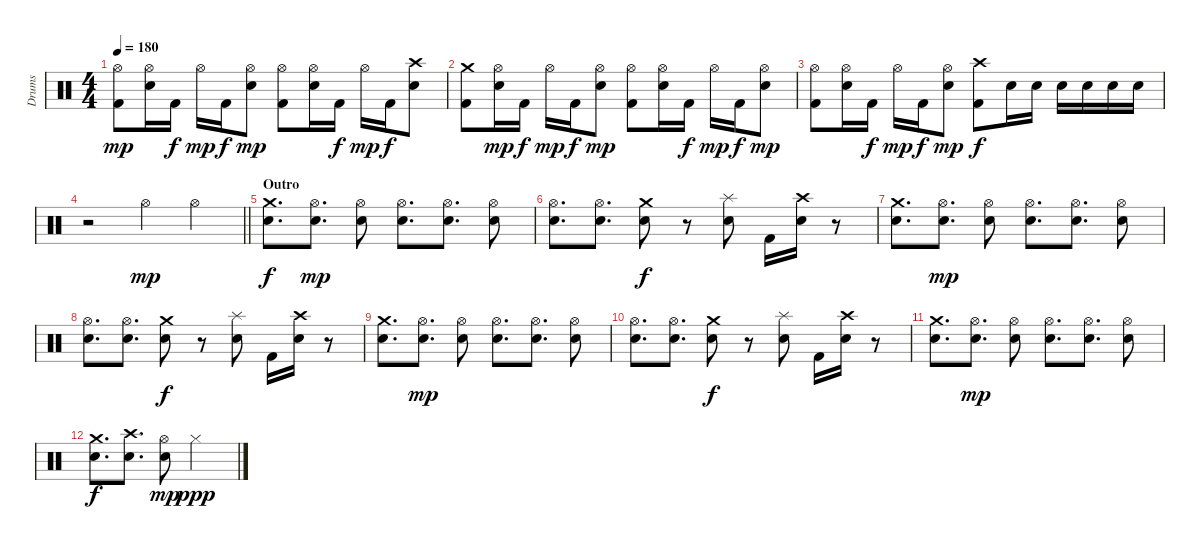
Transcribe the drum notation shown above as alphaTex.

\track ("Drums" "Drums") {instrument percussion}
\staff {score}
\articulation defaults
\ts (4 4)
\tempo 180
\clef neutral
\ks c
("Hi-Hat (open)" "Kick (hit) 2").8{dy mp} ("Hi-Hat (open)" "Snare (hit) 2").16 "Kick (hit) 2".16{dy f} "Hi-Hat (open)".16{dy mp} "Kick (hit) 2".16{dy f} ("Hi-Hat (open)" "Snare (hit) 2").8{dy mp} ("Hi-Hat (open)" "Kick (hit) 2").8 ("Hi-Hat (open)" "Snare (hit) 2").16 "Kick (hit) 2".16{dy f} "Hi-Hat (open)".16{dy mp} "Kick (hit) 2".16{dy f} ("Crash high (hit)" "Snare (hit) 2").8 |
("Crash medium (hit)" "Kick (hit) 2").8 ("Hi-Hat (open)" "Snare (hit) 2").16{dy mp} "Kick (hit) 2".16{dy f} "Hi-Hat (open)".16{dy mp} "Kick (hit) 2".16{dy f} ("Hi-Hat (open)" "Snare (hit) 2").8{dy mp} ("Hi-Hat (open)" "Kick (hit) 2").8 ("Hi-Hat (open)" "Snare (hit) 2").16 "Kick (hit) 2".16{dy f} "Hi-Hat (open)".16{dy mp} "Kick (hit) 2".16{dy f} ("Hi-Hat (open)" "Snare (hit) 2").8{dy mp} |
("Hi-Hat (open)" "Kick (hit) 2").8 ("Hi-Hat (open)" "Snare (hit) 2").16 "Kick (hit) 2".16{dy f} "Hi-Hat (open)".16{dy mp} "Kick (hit) 2".16{dy f} ("Hi-Hat (open)" "Snare (hit) 2").8{dy mp} ("Crash high (hit)" "Kick (hit) 2").8{dy f} "Snare (hit) 2".16 "Snare (hit) 2".16 "Snare (hit) 2".16 "Snare (hit) 2".16 "Snare (hit) 2".16 "Snare (hit) 2".16 |
\barLineRight lightlight
r.2 "Hi-Hat (open)".4{dy mp} "Hi-Hat (open)".4 |
\section ("" "Outro")
("Crash medium (hit)" "Snare (hit) 2").8{d dy f} ("Hi-Hat (open)" "Snare (hit) 2").8{d dy mp} ("Hi-Hat (open)" "Snare (hit) 2").8 ("Hi-Hat (open)" "Snare (hit) 2").8{d} ("Hi-Hat (open)" "Snare (hit) 2").8{d} ("Hi-Hat (open)" "Snare (hit) 2").8 |
("Hi-Hat (open)" "Snare (hit) 2").8{d} ("Hi-Hat (open)" "Snare (hit) 2").8{d} ("Crash medium (hit)" "Snare (hit) 2").8{dy f} r.8 ("Splash (hit)" "Snare (hit) 2").8 "Kick (hit) 2".16 ("Crash high (hit)" "Snare (hit) 2").16 r.8 |
("Crash medium (hit)" "Snare (hit) 2").8{d} ("Hi-Hat (open)" "Snare (hit) 2").8{d dy mp} ("Hi-Hat (open)" "Snare (hit) 2").8 ("Hi-Hat (open)" "Snare (hit) 2").8{d} ("Hi-Hat (open)" "Snare (hit) 2").8{d} ("Hi-Hat (open)" "Snare (hit) 2").8 |
("Hi-Hat (open)" "Snare (hit) 2").8{d} ("Hi-Hat (open)" "Snare (hit) 2").8{d} ("Crash medium (hit)" "Snare (hit) 2").8{dy f} r.8 ("Splash (hit)" "Snare (hit) 2").8 "Kick (hit) 2".16 ("Crash high (hit)" "Snare (hit) 2").16 r.8 |
("Crash medium (hit)" "Snare (hit) 2").8{d} ("Hi-Hat (open)" "Snare (hit) 2").8{d dy mp} ("Hi-Hat (open)" "Snare (hit) 2").8 ("Hi-Hat (open)" "Snare (hit) 2").8{d} ("Hi-Hat (open)" "Snare (hit) 2").8{d} ("Hi-Hat (open)" "Snare (hit) 2").8 |
("Hi-Hat (open)" "Snare (hit) 2").8{d} ("Hi-Hat (open)" "Snare (hit) 2").8{d} ("Crash medium (hit)" "Snare (hit) 2").8{dy f} r.8 ("Splash (hit)" "Snare (hit) 2").8 "Kick (hit) 2".16 ("Crash high (hit)" "Snare (hit) 2").16 r.8 |
("Crash medium (hit)" "Snare (hit) 2").8{d} ("Hi-Hat (open)" "Snare (hit) 2").8{d dy mp} ("Hi-Hat (open)" "Snare (hit) 2").8 ("Hi-Hat (open)" "Snare (hit) 2").8{d} ("Hi-Hat (open)" "Snare (hit) 2").8{d} ("Hi-Hat (open)" "Snare (hit) 2").8 |
("Crash medium (hit)" "Snare (hit) 2").8{d dy f} ("Crash high (hit)" "Snare (hit) 2").8{d} ("Hi-Hat (open)" "Snare (hit) 2").8{dy mp} "Hi-Hat (closed)".2{dy ppp}
